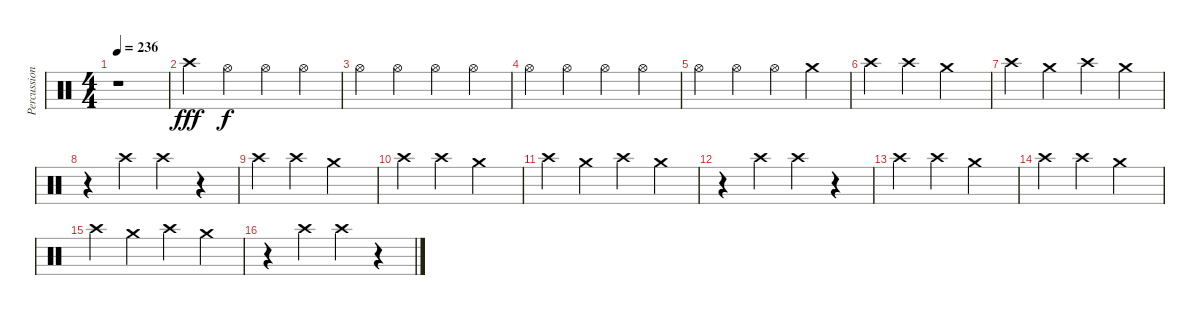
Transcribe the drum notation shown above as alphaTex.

\track ("Percussions" "Percussion") {instrument percussion}
\staff {score}
\articulation defaults
\ts (4 4)
\tempo 236
\clef neutral
\ks c
r.1{dy f} |
"Crash high (hit)".4{dy fff} "Hi-Hat (open)".4{dy f} "Hi-Hat (open)".4 "Hi-Hat (open)".4 |
"Hi-Hat (open)".4 "Hi-Hat (open)".4 "Hi-Hat (open)".4 "Hi-Hat (open)".4 |
"Hi-Hat (open)".4 "Hi-Hat (open)".4 "Hi-Hat (open)".4 "Hi-Hat (open)".4 |
"Hi-Hat (open)".4 "Hi-Hat (open)".4 "Hi-Hat (open)".4 "Crash medium (hit)".4 |
"Crash high (hit)".4 "Crash high (hit)".4 "Crash medium (hit)".2 |
"Crash high (hit)".4 "Crash medium (hit)".4 "Crash high (hit)".4 "Crash medium (hit)".4 |
r.4 "Crash high (hit)".4 "Crash high (hit)".4 r.4 |
"Crash high (hit)".4 "Crash high (hit)".4 "Crash medium (hit)".2 |
"Crash high (hit)".4 "Crash high (hit)".4 "Crash medium (hit)".2 |
"Crash high (hit)".4 "Crash medium (hit)".4 "Crash high (hit)".4 "Crash medium (hit)".4 |
r.4 "Crash high (hit)".4 "Crash high (hit)".4 r.4 |
"Crash high (hit)".4 "Crash high (hit)".4 "Crash medium (hit)".2 |
"Crash high (hit)".4 "Crash high (hit)".4 "Crash medium (hit)".2 |
"Crash high (hit)".4 "Crash medium (hit)".4 "Crash high (hit)".4 "Crash medium (hit)".4 |
r.4 "Crash high (hit)".4 "Crash high (hit)".4 r.4
